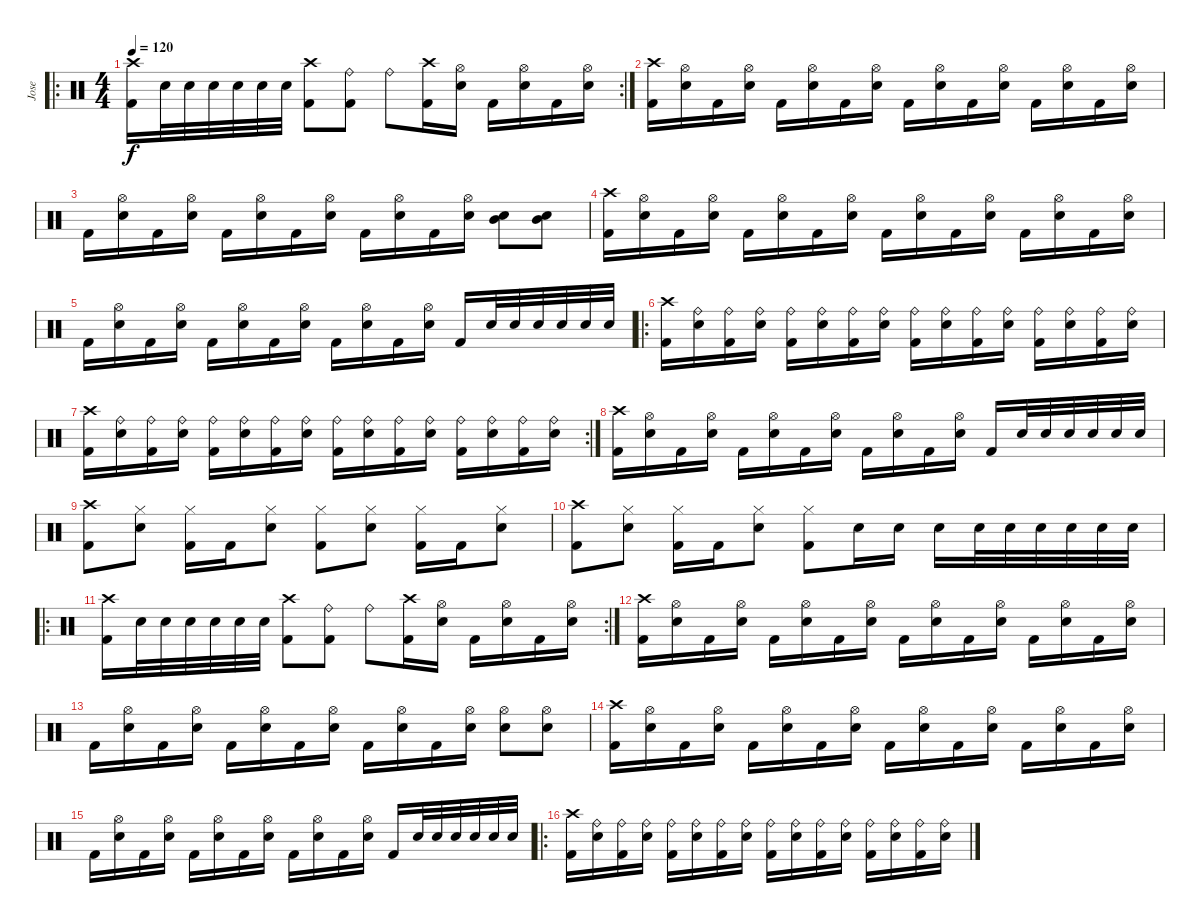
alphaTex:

\track ("Jose" "Jose") {instrument percussion}
\staff {score}
\articulation defaults
\ro
\rc 2
\ts (4 4)
\tempo 120
\clef neutral
\ks c
("Crash high (hit)" "Kick (hit) 2").16{dy f} "Electric Snare (hit)".32 "Electric Snare (hit)".32 "Electric Snare (hit)".32 "Electric Snare (hit)".32 "Electric Snare (hit)".32 "Electric Snare (hit)".32 ("Crash high (hit)" "Kick (hit) 2").8 ("Ride (bell)" "Kick (hit) 2").8 "Ride (bell)".8 ("Crash high (hit)" "Kick (hit) 2").16 ("Hi-Hat (open)" "Electric Snare (hit)").16 "Kick (hit) 2".16 ("Hi-Hat (open)" "Electric Snare (hit)").16 "Kick (hit) 2".16 ("Hi-Hat (open)" "Electric Snare (hit)").16 |
("Crash high (hit)" "Kick (hit) 2").16 ("Hi-Hat (open)" "Electric Snare (hit)").16 "Kick (hit) 2".16 ("Hi-Hat (open)" "Electric Snare (hit)").16 "Kick (hit) 2".16 ("Hi-Hat (open)" "Electric Snare (hit)").16 "Kick (hit) 2".16 ("Hi-Hat (open)" "Electric Snare (hit)").16 "Kick (hit) 2".16 ("Hi-Hat (open)" "Electric Snare (hit)").16 "Kick (hit) 2".16 ("Hi-Hat (open)" "Electric Snare (hit)").16 "Kick (hit) 2".16 ("Hi-Hat (open)" "Electric Snare (hit)").16 "Kick (hit) 2".16 ("Hi-Hat (open)" "Electric Snare (hit)").16 |
"Kick (hit) 2".16 ("Hi-Hat (open)" "Electric Snare (hit)").16 "Kick (hit) 2".16 ("Hi-Hat (open)" "Electric Snare (hit)").16 "Kick (hit) 2".16 ("Hi-Hat (open)" "Electric Snare (hit)").16 "Kick (hit) 2".16 ("Hi-Hat (open)" "Electric Snare (hit)").16 "Kick (hit) 2".16 ("Hi-Hat (open)" "Electric Snare (hit)").16 "Kick (hit) 2".16 ("Hi-Hat (open)" "Electric Snare (hit)").16 ("Mid Tom (hit)" "Electric Snare (hit)").8 ("Mid Tom (hit)" "Electric Snare (hit)").8 |
("Crash high (hit)" "Kick (hit) 2").16 ("Hi-Hat (open)" "Electric Snare (hit)").16 "Kick (hit) 2".16 ("Hi-Hat (open)" "Electric Snare (hit)").16 "Kick (hit) 2".16 ("Hi-Hat (open)" "Electric Snare (hit)").16 "Kick (hit) 2".16 ("Hi-Hat (open)" "Electric Snare (hit)").16 "Kick (hit) 2".16 ("Hi-Hat (open)" "Electric Snare (hit)").16 "Kick (hit) 2".16 ("Hi-Hat (open)" "Electric Snare (hit)").16 "Kick (hit) 2".16 ("Hi-Hat (open)" "Electric Snare (hit)").16 "Kick (hit) 2".16 ("Hi-Hat (open)" "Electric Snare (hit)").16 |
"Kick (hit) 2".16 ("Hi-Hat (open)" "Electric Snare (hit)").16 "Kick (hit) 2".16 ("Hi-Hat (open)" "Electric Snare (hit)").16 "Kick (hit) 2".16 ("Hi-Hat (open)" "Electric Snare (hit)").16 "Kick (hit) 2".16 ("Hi-Hat (open)" "Electric Snare (hit)").16 "Kick (hit) 2".16 ("Hi-Hat (open)" "Electric Snare (hit)").16 "Kick (hit) 2".16 ("Hi-Hat (open)" "Electric Snare (hit)").16 "Kick (hit) 2".16 "Electric Snare (hit)".32 "Electric Snare (hit)".32 "Electric Snare (hit)".32 "Electric Snare (hit)".32 "Electric Snare (hit)".32 "Electric Snare (hit)".32 |
\ro
("Crash high (hit)" "Kick (hit) 2").16 ("Ride (bell)" "Electric Snare (hit)").16 ("Ride (bell)" "Kick (hit) 2").16 ("Ride (bell)" "Electric Snare (hit)").16 ("Ride (bell)" "Kick (hit) 2").16 ("Ride (bell)" "Electric Snare (hit)").16 ("Ride (bell)" "Kick (hit) 2").16 ("Ride (bell)" "Electric Snare (hit)").16 ("Ride (bell)" "Kick (hit) 2").16 ("Ride (bell)" "Electric Snare (hit)").16 ("Ride (bell)" "Kick (hit) 2").16 ("Ride (bell)" "Electric Snare (hit)").16 ("Ride (bell)" "Kick (hit) 2").16 ("Ride (bell)" "Electric Snare (hit)").16 ("Ride (bell)" "Kick (hit) 2").16 ("Ride (bell)" "Electric Snare (hit)").16 |
\rc 2
("Crash high (hit)" "Kick (hit) 2").16 ("Ride (bell)" "Electric Snare (hit)").16 ("Ride (bell)" "Kick (hit) 2").16 ("Ride (bell)" "Electric Snare (hit)").16 ("Ride (bell)" "Kick (hit) 2").16 ("Ride (bell)" "Electric Snare (hit)").16 ("Ride (bell)" "Kick (hit) 2").16 ("Ride (bell)" "Electric Snare (hit)").16 ("Ride (bell)" "Kick (hit) 2").16 ("Ride (bell)" "Electric Snare (hit)").16 ("Ride (bell)" "Kick (hit) 2").16 ("Ride (bell)" "Electric Snare (hit)").16 ("Ride (bell)" "Kick (hit) 2").16 ("Ride (bell)" "Electric Snare (hit)").16 ("Ride (bell)" "Kick (hit) 2").16 ("Ride (bell)" "Electric Snare (hit)").16 |
("Crash high (hit)" "Kick (hit) 2").16 ("Hi-Hat (open)" "Electric Snare (hit)").16 "Kick (hit) 2".16 ("Hi-Hat (open)" "Electric Snare (hit)").16 "Kick (hit) 2".16 ("Hi-Hat (open)" "Electric Snare (hit)").16 "Kick (hit) 2".16 ("Hi-Hat (open)" "Electric Snare (hit)").16 "Kick (hit) 2".16 ("Hi-Hat (open)" "Electric Snare (hit)").16 "Kick (hit) 2".16 ("Hi-Hat (open)" "Electric Snare (hit)").16 "Kick (hit) 2".16 "Electric Snare (hit)".32 "Electric Snare (hit)".32 "Electric Snare (hit)".32 "Electric Snare (hit)".32 "Electric Snare (hit)".32 "Electric Snare (hit)".32 |
("Crash high (hit)" "Kick (hit) 2").8 ("Hi-Hat (closed)" "Electric Snare (hit)").8 ("Hi-Hat (closed)" "Kick (hit) 2").16 "Kick (hit) 2".16 ("Hi-Hat (closed)" "Electric Snare (hit)").8 ("Hi-Hat (closed)" "Kick (hit) 2").8 ("Hi-Hat (closed)" "Electric Snare (hit)").8 ("Hi-Hat (closed)" "Kick (hit) 2").16 "Kick (hit) 2".16 ("Hi-Hat (closed)" "Electric Snare (hit)").8 |
("Crash high (hit)" "Kick (hit) 2").8 ("Hi-Hat (closed)" "Electric Snare (hit)").8 ("Hi-Hat (closed)" "Kick (hit) 2").16 "Kick (hit) 2".16 ("Hi-Hat (closed)" "Electric Snare (hit)").8 ("Hi-Hat (closed)" "Kick (hit) 2").8 "Electric Snare (hit)".16 "Electric Snare (hit)".16 "Electric Snare (hit)".16 "Electric Snare (hit)".32 "Electric Snare (hit)".32 "Electric Snare (hit)".32 "Electric Snare (hit)".32 "Electric Snare (hit)".32 "Electric Snare (hit)".32 |
\ro
\rc 2
("Crash high (hit)" "Kick (hit) 2").16 "Electric Snare (hit)".32 "Electric Snare (hit)".32 "Electric Snare (hit)".32 "Electric Snare (hit)".32 "Electric Snare (hit)".32 "Electric Snare (hit)".32 ("Crash high (hit)" "Kick (hit) 2").8 ("Ride (bell)" "Kick (hit) 2").8 "Ride (bell)".8 ("Crash high (hit)" "Kick (hit) 2").16 ("Hi-Hat (open)" "Electric Snare (hit)").16 "Kick (hit) 2".16 ("Hi-Hat (open)" "Electric Snare (hit)").16 "Kick (hit) 2".16 ("Hi-Hat (open)" "Electric Snare (hit)").16 |
("Crash high (hit)" "Kick (hit) 2").16 ("Hi-Hat (open)" "Electric Snare (hit)").16 "Kick (hit) 2".16 ("Hi-Hat (open)" "Electric Snare (hit)").16 "Kick (hit) 2".16 ("Hi-Hat (open)" "Electric Snare (hit)").16 "Kick (hit) 2".16 ("Hi-Hat (open)" "Electric Snare (hit)").16 "Kick (hit) 2".16 ("Hi-Hat (open)" "Electric Snare (hit)").16 "Kick (hit) 2".16 ("Hi-Hat (open)" "Electric Snare (hit)").16 "Kick (hit) 2".16 ("Hi-Hat (open)" "Electric Snare (hit)").16 "Kick (hit) 2".16 ("Hi-Hat (open)" "Electric Snare (hit)").16 |
"Kick (hit) 2".16 ("Hi-Hat (open)" "Electric Snare (hit)").16 "Kick (hit) 2".16 ("Hi-Hat (open)" "Electric Snare (hit)").16 "Kick (hit) 2".16 ("Hi-Hat (open)" "Electric Snare (hit)").16 "Kick (hit) 2".16 ("Hi-Hat (open)" "Electric Snare (hit)").16 "Kick (hit) 2".16 ("Hi-Hat (open)" "Electric Snare (hit)").16 "Kick (hit) 2".16 ("Hi-Hat (open)" "Electric Snare (hit)").16 ("Hi-Hat (open)" "Electric Snare (hit)").8 ("Hi-Hat (open)" "Electric Snare (hit)").8 |
("Crash high (hit)" "Kick (hit) 2").16 ("Hi-Hat (open)" "Electric Snare (hit)").16 "Kick (hit) 2".16 ("Hi-Hat (open)" "Electric Snare (hit)").16 "Kick (hit) 2".16 ("Hi-Hat (open)" "Electric Snare (hit)").16 "Kick (hit) 2".16 ("Hi-Hat (open)" "Electric Snare (hit)").16 "Kick (hit) 2".16 ("Hi-Hat (open)" "Electric Snare (hit)").16 "Kick (hit) 2".16 ("Hi-Hat (open)" "Electric Snare (hit)").16 "Kick (hit) 2".16 ("Hi-Hat (open)" "Electric Snare (hit)").16 "Kick (hit) 2".16 ("Hi-Hat (open)" "Electric Snare (hit)").16 |
"Kick (hit) 2".16 ("Hi-Hat (open)" "Electric Snare (hit)").16 "Kick (hit) 2".16 ("Hi-Hat (open)" "Electric Snare (hit)").16 "Kick (hit) 2".16 ("Hi-Hat (open)" "Electric Snare (hit)").16 "Kick (hit) 2".16 ("Hi-Hat (open)" "Electric Snare (hit)").16 "Kick (hit) 2".16 ("Hi-Hat (open)" "Electric Snare (hit)").16 "Kick (hit) 2".16 ("Hi-Hat (open)" "Electric Snare (hit)").16 "Kick (hit) 2".16 "Electric Snare (hit)".32 "Electric Snare (hit)".32 "Electric Snare (hit)".32 "Electric Snare (hit)".32 "Electric Snare (hit)".32 "Electric Snare (hit)".32 |
\ro
("Crash high (hit)" "Kick (hit) 2").16 ("Ride (bell)" "Electric Snare (hit)").16 ("Ride (bell)" "Kick (hit) 2").16 ("Ride (bell)" "Electric Snare (hit)").16 ("Ride (bell)" "Kick (hit) 2").16 ("Ride (bell)" "Electric Snare (hit)").16 ("Ride (bell)" "Kick (hit) 2").16 ("Ride (bell)" "Electric Snare (hit)").16 ("Ride (bell)" "Kick (hit) 2").16 ("Ride (bell)" "Electric Snare (hit)").16 ("Ride (bell)" "Kick (hit) 2").16 ("Ride (bell)" "Electric Snare (hit)").16 ("Ride (bell)" "Kick (hit) 2").16 ("Ride (bell)" "Electric Snare (hit)").16 ("Ride (bell)" "Kick (hit) 2").16 ("Ride (bell)" "Electric Snare (hit)").16
